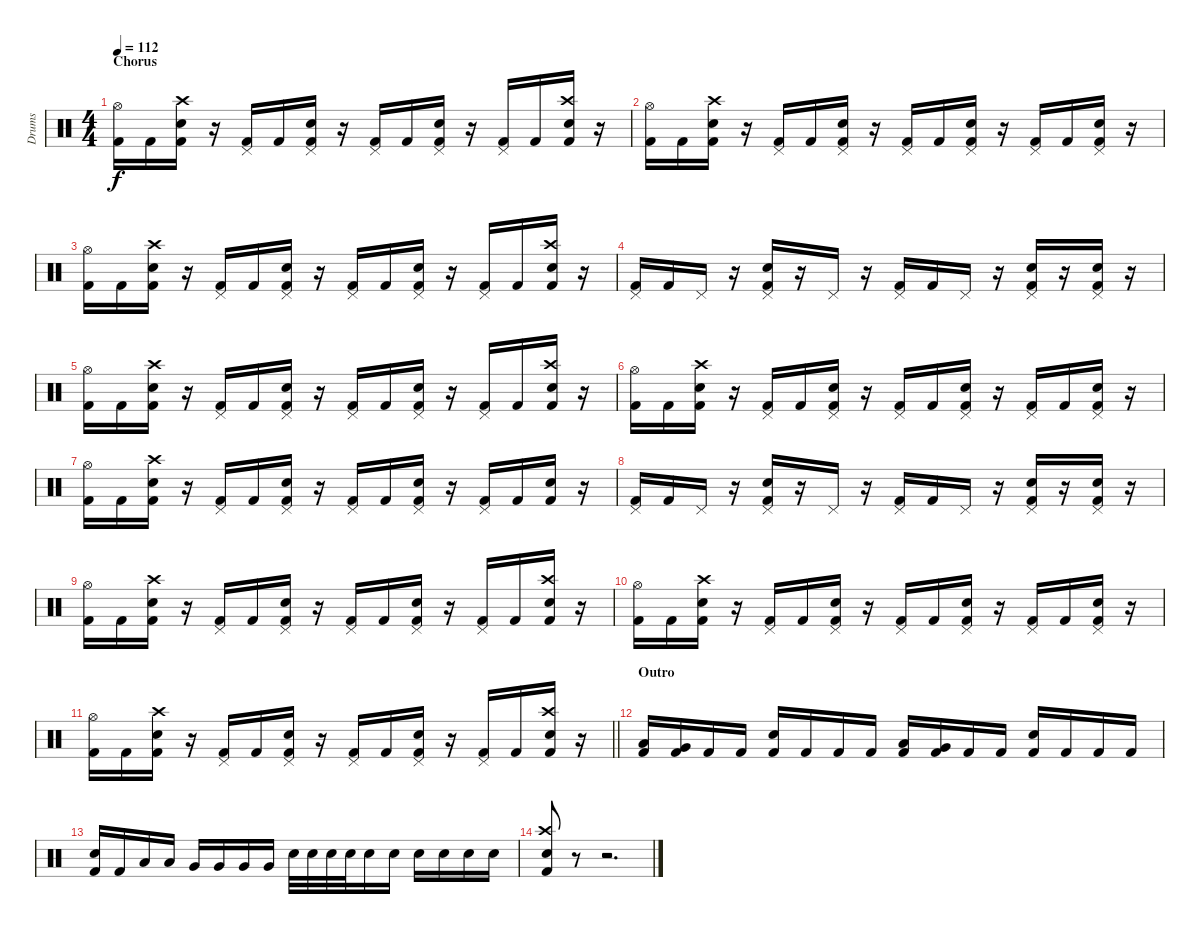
\track ("Drums" "Drums") {instrument percussion}
\staff {score}
\articulation defaults
\ts (4 4)
\section ("" "Chorus")
\tempo 112
\clef neutral
\ks c
("Hi-Hat (open)" "Kick (hit) 2").16{dy f} "Kick (hit) 2".16 ("Crash high (hit)" "Snare (hit) 2" "Kick (hit) 2").16 r.16 ("Pedal Hi-Hat (hit)" "Kick (hit) 2").16 "Kick (hit) 2".16 ("Pedal Hi-Hat (hit)" "Snare (hit) 2" "Kick (hit) 2").16 r.16 ("Pedal Hi-Hat (hit)" "Kick (hit) 2").16 "Kick (hit) 2".16 ("Pedal Hi-Hat (hit)" "Snare (hit) 2" "Kick (hit) 2").16 r.16 ("Pedal Hi-Hat (hit)" "Kick (hit) 2").16 "Kick (hit) 2".16 ("Crash high (hit)" "Snare (hit) 2" "Kick (hit) 2").16 r.16 |
("Hi-Hat (open)" "Kick (hit) 2").16 "Kick (hit) 2".16 ("Crash high (hit)" "Snare (hit) 2" "Kick (hit) 2").16 r.16 ("Pedal Hi-Hat (hit)" "Kick (hit) 2").16 "Kick (hit) 2".16 ("Pedal Hi-Hat (hit)" "Snare (hit) 2" "Kick (hit) 2").16 r.16 ("Pedal Hi-Hat (hit)" "Kick (hit) 2").16 "Kick (hit) 2".16 ("Pedal Hi-Hat (hit)" "Snare (hit) 2" "Kick (hit) 2").16 r.16 ("Pedal Hi-Hat (hit)" "Kick (hit) 2").16 "Kick (hit) 2".16 ("Pedal Hi-Hat (hit)" "Snare (hit) 2" "Kick (hit) 2").16 r.16 |
("Hi-Hat (open)" "Kick (hit) 2").16 "Kick (hit) 2".16 ("Crash high (hit)" "Snare (hit) 2" "Kick (hit) 2").16 r.16 ("Pedal Hi-Hat (hit)" "Kick (hit) 2").16 "Kick (hit) 2".16 ("Pedal Hi-Hat (hit)" "Snare (hit) 2" "Kick (hit) 2").16 r.16 ("Pedal Hi-Hat (hit)" "Kick (hit) 2").16 "Kick (hit) 2".16 ("Pedal Hi-Hat (hit)" "Snare (hit) 2" "Kick (hit) 2").16 r.16 ("Pedal Hi-Hat (hit)" "Kick (hit) 2").16 "Kick (hit) 2".16 ("Crash high (hit)" "Snare (hit) 2" "Kick (hit) 2").16 r.16 |
("Pedal Hi-Hat (hit)" "Kick (hit) 2").16 "Kick (hit) 2".16 "Pedal Hi-Hat (hit)".16 r.16 ("Pedal Hi-Hat (hit)" "Snare (hit) 2" "Kick (hit) 2").16 r.16 "Pedal Hi-Hat (hit)".16 r.16 ("Pedal Hi-Hat (hit)" "Kick (hit) 2").16 "Kick (hit) 2".16 "Pedal Hi-Hat (hit)".16 r.16 ("Pedal Hi-Hat (hit)" "Snare (hit) 2" "Kick (hit) 2").16 r.16 ("Pedal Hi-Hat (hit)" "Snare (hit) 2" "Kick (hit) 2").16 r.16 |
("Hi-Hat (open)" "Kick (hit) 2").16 "Kick (hit) 2".16 ("Crash high (hit)" "Snare (hit) 2" "Kick (hit) 2").16 r.16 ("Pedal Hi-Hat (hit)" "Kick (hit) 2").16 "Kick (hit) 2".16 ("Pedal Hi-Hat (hit)" "Snare (hit) 2" "Kick (hit) 2").16 r.16 ("Pedal Hi-Hat (hit)" "Kick (hit) 2").16 "Kick (hit) 2".16 ("Pedal Hi-Hat (hit)" "Snare (hit) 2" "Kick (hit) 2").16 r.16 ("Pedal Hi-Hat (hit)" "Kick (hit) 2").16 "Kick (hit) 2".16 ("Crash high (hit)" "Snare (hit) 2" "Kick (hit) 2").16 r.16 |
("Hi-Hat (open)" "Kick (hit) 2").16 "Kick (hit) 2".16 ("Crash high (hit)" "Snare (hit) 2" "Kick (hit) 2").16 r.16 ("Pedal Hi-Hat (hit)" "Kick (hit) 2").16 "Kick (hit) 2".16 ("Pedal Hi-Hat (hit)" "Snare (hit) 2" "Kick (hit) 2").16 r.16 ("Pedal Hi-Hat (hit)" "Kick (hit) 2").16 "Kick (hit) 2".16 ("Pedal Hi-Hat (hit)" "Snare (hit) 2" "Kick (hit) 2").16 r.16 ("Pedal Hi-Hat (hit)" "Kick (hit) 2").16 "Kick (hit) 2".16 ("Pedal Hi-Hat (hit)" "Snare (hit) 2" "Kick (hit) 2").16 r.16 |
("Hi-Hat (open)" "Kick (hit) 2").16 "Kick (hit) 2".16 ("Crash high (hit)" "Snare (hit) 2" "Kick (hit) 2").16 r.16 ("Pedal Hi-Hat (hit)" "Kick (hit) 2").16 "Kick (hit) 2".16 ("Pedal Hi-Hat (hit)" "Snare (hit) 2" "Kick (hit) 2").16 r.16 ("Pedal Hi-Hat (hit)" "Kick (hit) 2").16 "Kick (hit) 2".16 ("Pedal Hi-Hat (hit)" "Snare (hit) 2" "Kick (hit) 2").16 r.16 ("Pedal Hi-Hat (hit)" "Kick (hit) 2").16 "Kick (hit) 2".16 ("Snare (hit) 2" "Kick (hit) 2").16 r.16 |
("Pedal Hi-Hat (hit)" "Kick (hit) 2").16 "Kick (hit) 2".16 "Pedal Hi-Hat (hit)".16 r.16 ("Pedal Hi-Hat (hit)" "Snare (hit) 2" "Kick (hit) 2").16 r.16 "Pedal Hi-Hat (hit)".16 r.16 ("Pedal Hi-Hat (hit)" "Kick (hit) 2").16 "Kick (hit) 2".16 "Pedal Hi-Hat (hit)".16 r.16 ("Pedal Hi-Hat (hit)" "Snare (hit) 2" "Kick (hit) 2").16 r.16 ("Pedal Hi-Hat (hit)" "Snare (hit) 2" "Kick (hit) 2").16 r.16 |
("Hi-Hat (open)" "Kick (hit) 2").16 "Kick (hit) 2".16 ("Crash high (hit)" "Snare (hit) 2" "Kick (hit) 2").16 r.16 ("Pedal Hi-Hat (hit)" "Kick (hit) 2").16 "Kick (hit) 2".16 ("Pedal Hi-Hat (hit)" "Snare (hit) 2" "Kick (hit) 2").16 r.16 ("Pedal Hi-Hat (hit)" "Kick (hit) 2").16 "Kick (hit) 2".16 ("Pedal Hi-Hat (hit)" "Snare (hit) 2" "Kick (hit) 2").16 r.16 ("Pedal Hi-Hat (hit)" "Kick (hit) 2").16 "Kick (hit) 2".16 ("Crash high (hit)" "Snare (hit) 2" "Kick (hit) 2").16 r.16 |
("Hi-Hat (open)" "Kick (hit) 2").16 "Kick (hit) 2".16 ("Crash high (hit)" "Snare (hit) 2" "Kick (hit) 2").16 r.16 ("Pedal Hi-Hat (hit)" "Kick (hit) 2").16 "Kick (hit) 2".16 ("Pedal Hi-Hat (hit)" "Snare (hit) 2" "Kick (hit) 2").16 r.16 ("Pedal Hi-Hat (hit)" "Kick (hit) 2").16 "Kick (hit) 2".16 ("Pedal Hi-Hat (hit)" "Snare (hit) 2" "Kick (hit) 2").16 r.16 ("Pedal Hi-Hat (hit)" "Kick (hit) 2").16 "Kick (hit) 2".16 ("Pedal Hi-Hat (hit)" "Snare (hit) 2" "Kick (hit) 2").16 r.16 |
\barLineRight lightlight
("Hi-Hat (open)" "Kick (hit) 2").16 "Kick (hit) 2".16 ("Crash high (hit)" "Snare (hit) 2" "Kick (hit) 2").16 r.16 ("Pedal Hi-Hat (hit)" "Kick (hit) 2").16 "Kick (hit) 2".16 ("Pedal Hi-Hat (hit)" "Snare (hit) 2" "Kick (hit) 2").16 r.16 ("Pedal Hi-Hat (hit)" "Kick (hit) 2").16 "Kick (hit) 2".16 ("Pedal Hi-Hat (hit)" "Snare (hit) 2" "Kick (hit) 2").16 r.16 ("Pedal Hi-Hat (hit)" "Kick (hit) 2").16 "Kick (hit) 2".16 ("Crash high (hit)" "Snare (hit) 2" "Kick (hit) 2").16 r.16 |
\section ("" "Outro")
("Low Tom (hit)" "Kick (hit) 2").16 ("Very Low Tom (hit)" "Kick (hit) 2").16 "Kick (hit) 2".16 "Kick (hit) 2".16 ("Snare (hit) 2" "Kick (hit) 2").16 "Kick (hit) 2".16 "Kick (hit) 2".16 "Kick (hit) 2".16 ("Low Tom (hit)" "Kick (hit) 2").16 ("Very Low Tom (hit)" "Kick (hit) 2").16 "Kick (hit) 2".16 "Kick (hit) 2".16 ("Snare (hit) 2" "Kick (hit) 2").16 "Kick (hit) 2".16 "Kick (hit) 2".16 "Kick (hit) 2".16 |
("Snare (hit) 2" "Kick (hit) 2").16 "Kick (hit) 2".16 "Low Tom (hit)".16 "Low Tom (hit)".16 "Very Low Tom (hit)".16 "Very Low Tom (hit)".16 "Very Low Tom (hit)".16 "Very Low Tom (hit)".16 "Snare (hit) 2".32 "Snare (hit) 2".32 "Snare (hit) 2".32 "Snare (hit) 2".32 "Snare (hit) 2".16 "Snare (hit) 2".16 "Snare (hit) 2".16 "Snare (hit) 2".16 "Snare (hit) 2".16 "Snare (hit) 2".16 |
("Crash high (hit)" "Snare (hit) 2" "Kick (hit) 2").8 r.8 r.2{d}
